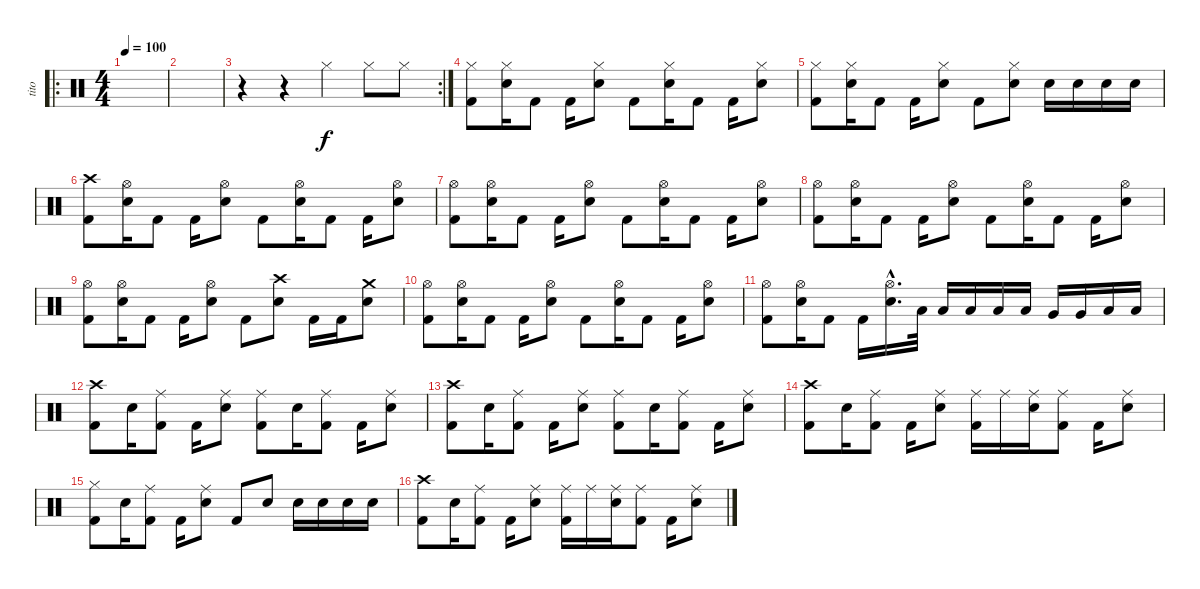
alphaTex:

\track ("tito" "tito") {instrument percussion}
\staff {score}
\articulation defaults
\ro
\ts (4 4)
\tempo 100
\clef neutral
\ks c
|
|
\rc 2
r.4 r.4 "Hi-Hat (closed)".4 "Hi-Hat (closed)".8 "Hi-Hat (closed)".8 |
("Hi-Hat (closed)" "Kick (hit) 2").8 ("Hi-Hat (closed)" "Snare (hit) 2").16 "Kick (hit) 2".8 "Kick (hit) 2".16 ("Hi-Hat (closed)" "Snare (hit) 2").8 "Kick (hit) 2".8 ("Hi-Hat (closed)" "Snare (hit) 2").16 "Kick (hit) 2".8 "Kick (hit) 2".16 ("Hi-Hat (closed)" "Snare (hit) 2").8 |
("Hi-Hat (closed)" "Kick (hit) 2").8 ("Hi-Hat (closed)" "Snare (hit) 2").16 "Kick (hit) 2".8 "Kick (hit) 2".16 ("Hi-Hat (closed)" "Snare (hit) 2").8 "Kick (hit) 2".8 ("Hi-Hat (closed)" "Snare (hit) 2").8 "Snare (hit) 2".16 "Snare (hit) 2".16 "Snare (hit) 2".16 "Snare (hit) 2".16 |
("Crash high (hit)" "Kick (hit) 2").8 ("Hi-Hat (open)" "Snare (hit) 2").16 "Kick (hit) 2".8 "Kick (hit) 2".16 ("Hi-Hat (open)" "Snare (hit) 2").8 "Kick (hit) 2".8 ("Hi-Hat (open)" "Snare (hit) 2").16 "Kick (hit) 2".8 "Kick (hit) 2".16 ("Hi-Hat (open)" "Snare (hit) 2").8 |
("Hi-Hat (open)" "Kick (hit) 2").8 ("Hi-Hat (open)" "Snare (hit) 2").16 "Kick (hit) 2".8 "Kick (hit) 2".16 ("Hi-Hat (open)" "Snare (hit) 2").8 "Kick (hit) 2".8 ("Hi-Hat (open)" "Snare (hit) 2").16 "Kick (hit) 2".8 "Kick (hit) 2".16 ("Hi-Hat (open)" "Snare (hit) 2").8 |
("Hi-Hat (open)" "Kick (hit) 2").8 ("Hi-Hat (open)" "Snare (hit) 2").16 "Kick (hit) 2".8 "Kick (hit) 2".16 ("Hi-Hat (open)" "Snare (hit) 2").8 "Kick (hit) 2".8 ("Hi-Hat (open)" "Snare (hit) 2").16 "Kick (hit) 2".8 "Kick (hit) 2".16 ("Hi-Hat (open)" "Snare (hit) 2").8 |
("Hi-Hat (open)" "Kick (hit) 2").8 ("Hi-Hat (open)" "Snare (hit) 2").16 "Kick (hit) 2".8 "Kick (hit) 2".16 ("Hi-Hat (open)" "Snare (hit) 2").8 "Kick (hit) 2".8 ("Crash high (hit)" "Snare (hit) 2").8 "Kick (hit) 2".16 "Kick (hit) 2".16 ("Crash medium (hit)" "Snare (hit) 2").8 |
("Hi-Hat (open)" "Kick (hit) 2").8 ("Hi-Hat (open)" "Snare (hit) 2").16 "Kick (hit) 2".8 "Kick (hit) 2".16 ("Hi-Hat (open)" "Snare (hit) 2").8 "Kick (hit) 2".8 ("Hi-Hat (open)" "Snare (hit) 2").16 "Kick (hit) 2".8 "Kick (hit) 2".16 ("Hi-Hat (open)" "Snare (hit) 2").8 |
("Hi-Hat (open)" "Kick (hit) 2").8 ("Hi-Hat (open)" "Snare (hit) 2").16 "Kick (hit) 2".8 "Kick (hit) 2".16 ("Hi-Hat (open)"{hac} "Snare (hit) 2"{hac}).16{d} "Low Tom (hit)".32 "Low Tom (hit)".16 "Low Tom (hit)".16 "Low Tom (hit)".16 "Low Tom (hit)".16 "Very Low Tom (hit)".16 "Very Low Tom (hit)".16 "Low Floor Tom (hit)".16 "Low Floor Tom (hit)".16 |
("Crash high (hit)" "Kick (hit) 2").8 "Snare (hit) 2".16 ("Ride (middle)" "Kick (hit) 2").8 "Kick (hit) 2".16 ("Ride (middle)" "Snare (hit) 2").8 ("Ride (middle)" "Kick (hit) 2").8 "Snare (hit) 2".16 ("Ride (middle)" "Kick (hit) 2").8 "Kick (hit) 2".16 ("Ride (middle)" "Snare (hit) 2").8 |
("Crash high (hit)" "Kick (hit) 2").8 "Snare (hit) 2".16 ("Ride (middle)" "Kick (hit) 2").8 "Kick (hit) 2".16 ("Ride (middle)" "Snare (hit) 2").8 ("Ride (middle)" "Kick (hit) 2").8 "Snare (hit) 2".16 ("Ride (middle)" "Kick (hit) 2").8 "Kick (hit) 2".16 ("Ride (middle)" "Snare (hit) 2").8 |
("Crash high (hit)" "Kick (hit) 2").8 "Snare (hit) 2".16 ("Ride (middle)" "Kick (hit) 2").8 "Kick (hit) 2".16 ("Ride (middle)" "Snare (hit) 2").8 ("Ride (middle)" "Kick (hit) 2").16 "Ride (middle)".16 ("Ride (middle)" "Snare (hit) 2").16 ("Ride (middle)" "Kick (hit) 2").8 "Kick (hit) 2".16 ("Ride (middle)" "Snare (hit) 2").8 |
("Hi-Hat (closed)" "Kick (hit) 2").8 "Snare (hit) 2".16 ("Ride (middle)" "Kick (hit) 2").8 "Kick (hit) 2".16 ("Ride (middle)" "Snare (hit) 2").8 "Kick (hit) 2".8 "Snare (hit) 2".8 "Snare (hit) 2".16 "Snare (hit) 2".16 "Snare (hit) 2".16 "Snare (hit) 2".16 |
("Crash high (hit)" "Kick (hit) 2").8 "Snare (hit) 2".16 ("Ride (middle)" "Kick (hit) 2").8 "Kick (hit) 2".16 ("Ride (middle)" "Snare (hit) 2").8 ("Ride (middle)" "Kick (hit) 2").16 "Ride (middle)".16 ("Ride (middle)" "Snare (hit) 2").16 ("Ride (middle)" "Kick (hit) 2").8 "Kick (hit) 2".16 ("Ride (middle)" "Snare (hit) 2").8
